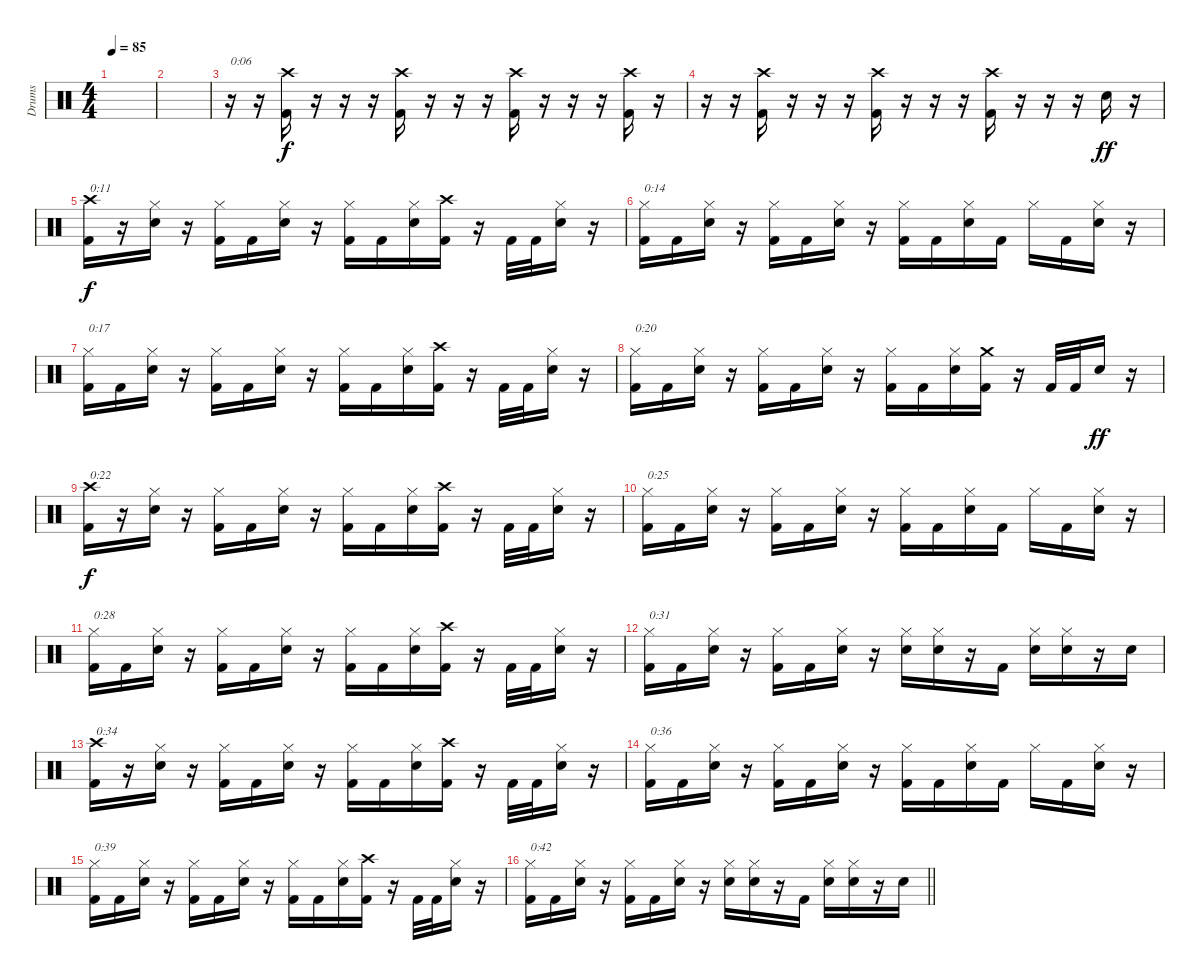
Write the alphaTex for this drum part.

\track ("Drums" "Drums") {instrument percussion}
\staff {score}
\articulation defaults
\ts (4 4)
\tempo 85
\clef neutral
\ks c
|
|
r.16{txt "0:06"} r.16 ("Crash high (hit)" "Kick (hit) 2").16 r.16{volume 0} r.16 r.16 ("Crash high (hit)" "Kick (hit) 2").16{volume 13} r.16{volume 0} r.16 r.16 ("Crash high (hit)" "Kick (hit) 2").16{volume 13} r.16{volume 0} r.16 r.16 ("Crash high (hit)" "Kick (hit) 2").16{volume 13} r.16{volume 0} |
r.16 r.16 ("Crash high (hit)" "Kick (hit) 2").16{volume 13} r.16{volume 0} r.16 r.16 ("Crash high (hit)" "Kick (hit) 2").16{volume 13} r.16{volume 0} r.16 r.16 ("Crash high (hit)" "Kick (hit) 2").16{volume 13} r.16{volume 0} r.16 r.16 "Snare (hit) 2".16{dy ff volume 13} r.16 |
("Crash high (hit)" "Kick (hit) 2").16{txt "0:11" dy f} r.16 ("Hi-Hat (closed)" "Snare (hit) 2").16 r.16 ("Hi-Hat (closed)" "Kick (hit) 2").16 "Kick (hit) 2".16 ("Hi-Hat (closed)" "Snare (hit) 2").16 r.16 ("Hi-Hat (closed)" "Kick (hit) 2").16 "Kick (hit) 2".16 ("Hi-Hat (closed)" "Snare (hit) 2").16 ("Crash high (hit)" "Kick (hit) 2").16 r.16 "Kick (hit) 2".32 "Kick (hit) 2".32 ("Hi-Hat (closed)" "Snare (hit) 2").16 r.16 |
("Hi-Hat (closed)" "Kick (hit) 2").16{txt "0:14"} "Kick (hit) 2".16 ("Hi-Hat (closed)" "Snare (hit) 2").16 r.16 ("Hi-Hat (closed)" "Kick (hit) 2").16 "Kick (hit) 2".16 ("Hi-Hat (closed)" "Snare (hit) 2").16 r.16 ("Hi-Hat (closed)" "Kick (hit) 2").16 "Kick (hit) 2".16 ("Hi-Hat (closed)" "Snare (hit) 2").16 "Kick (hit) 2".16 "Hi-Hat (closed)".16 "Kick (hit) 2".16 ("Hi-Hat (closed)" "Snare (hit) 2").16 r.16 |
("Hi-Hat (closed)" "Kick (hit) 2").16{txt "0:17"} "Kick (hit) 2".16 ("Hi-Hat (closed)" "Snare (hit) 2").16 r.16 ("Hi-Hat (closed)" "Kick (hit) 2").16 "Kick (hit) 2".16 ("Hi-Hat (closed)" "Snare (hit) 2").16 r.16 ("Hi-Hat (closed)" "Kick (hit) 2").16 "Kick (hit) 2".16 ("Hi-Hat (closed)" "Snare (hit) 2").16 ("Crash high (hit)" "Kick (hit) 2").16 r.16 "Kick (hit) 2".32 "Kick (hit) 2".32 ("Hi-Hat (closed)" "Snare (hit) 2").16 r.16 |
("Hi-Hat (closed)" "Kick (hit) 2").16{txt "0:20"} "Kick (hit) 2".16 ("Hi-Hat (closed)" "Snare (hit) 2").16 r.16 ("Hi-Hat (closed)" "Kick (hit) 2").16 "Kick (hit) 2".16 ("Hi-Hat (closed)" "Snare (hit) 2").16 r.16 ("Hi-Hat (closed)" "Kick (hit) 2").16 "Kick (hit) 2".16 ("Hi-Hat (closed)" "Snare (hit) 2").16 ("Crash medium (hit)" "Kick (hit) 2").16 r.16 "Kick (hit) 2".32 "Kick (hit) 2".32 "Snare (hit) 2".16{dy ff} r.16 |
("Crash high (hit)" "Kick (hit) 2").16{txt "0:22" dy f} r.16 ("Hi-Hat (closed)" "Snare (hit) 2").16 r.16 ("Hi-Hat (closed)" "Kick (hit) 2").16 "Kick (hit) 2".16 ("Hi-Hat (closed)" "Snare (hit) 2").16 r.16 ("Hi-Hat (closed)" "Kick (hit) 2").16 "Kick (hit) 2".16 ("Hi-Hat (closed)" "Snare (hit) 2").16 ("Crash high (hit)" "Kick (hit) 2").16 r.16 "Kick (hit) 2".32 "Kick (hit) 2".32 ("Hi-Hat (closed)" "Snare (hit) 2").16 r.16 |
("Hi-Hat (closed)" "Kick (hit) 2").16{txt "0:25"} "Kick (hit) 2".16 ("Hi-Hat (closed)" "Snare (hit) 2").16 r.16 ("Hi-Hat (closed)" "Kick (hit) 2").16 "Kick (hit) 2".16 ("Hi-Hat (closed)" "Snare (hit) 2").16 r.16 ("Hi-Hat (closed)" "Kick (hit) 2").16 "Kick (hit) 2".16 ("Hi-Hat (closed)" "Snare (hit) 2").16 "Kick (hit) 2".16 "Hi-Hat (closed)".16 "Kick (hit) 2".16 ("Hi-Hat (closed)" "Snare (hit) 2").16 r.16 |
("Hi-Hat (closed)" "Kick (hit) 2").16{txt "0:28"} "Kick (hit) 2".16 ("Hi-Hat (closed)" "Snare (hit) 2").16 r.16 ("Hi-Hat (closed)" "Kick (hit) 2").16 "Kick (hit) 2".16 ("Hi-Hat (closed)" "Snare (hit) 2").16 r.16 ("Hi-Hat (closed)" "Kick (hit) 2").16 "Kick (hit) 2".16 ("Hi-Hat (closed)" "Snare (hit) 2").16 ("Crash high (hit)" "Kick (hit) 2").16 r.16 "Kick (hit) 2".32 "Kick (hit) 2".32 ("Hi-Hat (closed)" "Snare (hit) 2").16 r.16 |
("Hi-Hat (closed)" "Kick (hit) 2").16{txt "0:31"} "Kick (hit) 2".16 ("Hi-Hat (closed)" "Snare (hit) 2").16 r.16 ("Hi-Hat (closed)" "Kick (hit) 2").16 "Kick (hit) 2".16 ("Hi-Hat (closed)" "Snare (hit) 2").16 r.16 ("Hi-Hat (closed)" "Snare (hit) 2").16 ("Hi-Hat (closed)" "Snare (hit) 2").16 r.16 "Kick (hit) 2".16 ("Hi-Hat (closed)" "Snare (hit) 2").16 ("Hi-Hat (closed)" "Snare (hit) 2").16 r.16 "Snare (hit) 2".16 |
("Crash high (hit)" "Kick (hit) 2").16{txt "0:34"} r.16 ("Hi-Hat (closed)" "Snare (hit) 2").16 r.16 ("Hi-Hat (closed)" "Kick (hit) 2").16 "Kick (hit) 2".16 ("Hi-Hat (closed)" "Snare (hit) 2").16 r.16 ("Hi-Hat (closed)" "Kick (hit) 2").16 "Kick (hit) 2".16 ("Hi-Hat (closed)" "Snare (hit) 2").16 ("Crash high (hit)" "Kick (hit) 2").16 r.16 "Kick (hit) 2".32 "Kick (hit) 2".32 ("Hi-Hat (closed)" "Snare (hit) 2").16 r.16 |
("Hi-Hat (closed)" "Kick (hit) 2").16{txt "0:36"} "Kick (hit) 2".16 ("Hi-Hat (closed)" "Snare (hit) 2").16 r.16 ("Hi-Hat (closed)" "Kick (hit) 2").16 "Kick (hit) 2".16 ("Hi-Hat (closed)" "Snare (hit) 2").16 r.16 ("Hi-Hat (closed)" "Kick (hit) 2").16 "Kick (hit) 2".16 ("Hi-Hat (closed)" "Snare (hit) 2").16 "Kick (hit) 2".16 "Hi-Hat (closed)".16 "Kick (hit) 2".16 ("Hi-Hat (closed)" "Snare (hit) 2").16 r.16 |
("Hi-Hat (closed)" "Kick (hit) 2").16{txt "0:39"} "Kick (hit) 2".16 ("Hi-Hat (closed)" "Snare (hit) 2").16 r.16 ("Hi-Hat (closed)" "Kick (hit) 2").16 "Kick (hit) 2".16 ("Hi-Hat (closed)" "Snare (hit) 2").16 r.16 ("Hi-Hat (closed)" "Kick (hit) 2").16 "Kick (hit) 2".16 ("Hi-Hat (closed)" "Snare (hit) 2").16 ("Crash high (hit)" "Kick (hit) 2").16 r.16 "Kick (hit) 2".32 "Kick (hit) 2".32 ("Hi-Hat (closed)" "Snare (hit) 2").16 r.16 |
\barLineRight lightlight
("Hi-Hat (closed)" "Kick (hit) 2").16{txt "0:42"} "Kick (hit) 2".16 ("Hi-Hat (closed)" "Snare (hit) 2").16 r.16 ("Hi-Hat (closed)" "Kick (hit) 2").16 "Kick (hit) 2".16 ("Hi-Hat (closed)" "Snare (hit) 2").16 r.16 ("Hi-Hat (closed)" "Snare (hit) 2").16 ("Hi-Hat (closed)" "Snare (hit) 2").16 r.16 "Kick (hit) 2".16 ("Hi-Hat (closed)" "Snare (hit) 2").16 ("Hi-Hat (closed)" "Snare (hit) 2").16 r.16 "Snare (hit) 2".16
